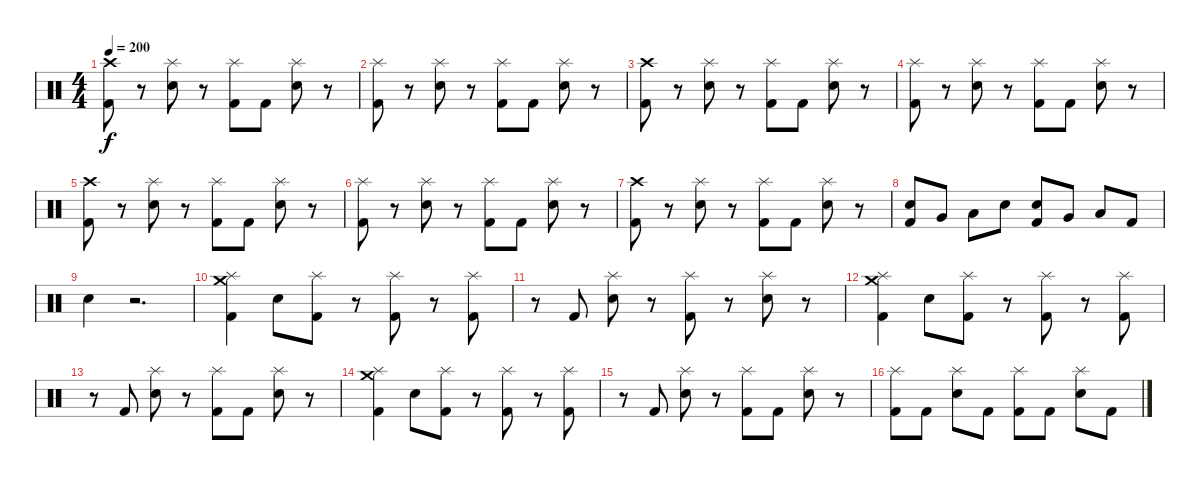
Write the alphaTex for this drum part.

\track "" {instrument percussion}
\staff {score}
\articulation defaults
\ts (4 4)
\tempo 200
\clef neutral
\ks c
("Crash high (hit)" "Kick (hit) 2").8{dy f} r.8 ("Splash (hit)" "Electric Snare (hit)").8 r.8 ("Splash (hit)" "Kick (hit) 2").8 "Kick (hit) 2".8 ("Splash (hit)" "Electric Snare (hit)").8 r.8 |
("Splash (hit)" "Kick (hit) 2").8 r.8 ("Splash (hit)" "Electric Snare (hit)").8 r.8 ("Splash (hit)" "Kick (hit) 2").8 "Kick (hit) 2".8 ("Splash (hit)" "Electric Snare (hit)").8 r.8 |
("Crash high (hit)" "Kick (hit) 2").8 r.8 ("Splash (hit)" "Electric Snare (hit)").8 r.8 ("Splash (hit)" "Kick (hit) 2").8 "Kick (hit) 2".8 ("Splash (hit)" "Electric Snare (hit)").8 r.8 |
("Splash (hit)" "Kick (hit) 2").8 r.8 ("Splash (hit)" "Electric Snare (hit)").8 r.8 ("Splash (hit)" "Kick (hit) 2").8 "Kick (hit) 2".8 ("Splash (hit)" "Electric Snare (hit)").8 r.8 |
("Crash high (hit)" "Kick (hit) 2").8 r.8 ("Splash (hit)" "Electric Snare (hit)").8 r.8 ("Splash (hit)" "Kick (hit) 2").8 "Kick (hit) 2".8 ("Splash (hit)" "Electric Snare (hit)").8 r.8 |
("Splash (hit)" "Kick (hit) 2").8 r.8 ("Splash (hit)" "Electric Snare (hit)").8 r.8 ("Splash (hit)" "Kick (hit) 2").8 "Kick (hit) 2".8 ("Splash (hit)" "Electric Snare (hit)").8 r.8 |
("Crash high (hit)" "Kick (hit) 2").8 r.8 ("Splash (hit)" "Electric Snare (hit)").8 r.8 ("Splash (hit)" "Kick (hit) 2").8 "Kick (hit) 2".8 ("Splash (hit)" "Electric Snare (hit)").8 r.8 |
("Kick (hit) 2" "Electric Snare (hit)").8 "Very Low Tom (hit)".8 "Low Tom (hit)".8 "Electric Snare (hit)".8 ("Kick (hit) 2" "Electric Snare (hit)").8 "Very Low Tom (hit)".8 "Low Tom (hit)".8 "Kick (hit) 2".8 |
"Electric Snare (hit)".4 r.2{d} |
("Splash (hit)" "Crash medium (hit)" "Kick (hit) 2").4 "Electric Snare (hit)".8 ("Splash (hit)" "Kick (hit) 2").8 r.8 ("Splash (hit)" "Kick (hit) 2").8 r.8 ("Splash (hit)" "Kick (hit) 2").8 |
r.8 "Kick (hit) 2".8 ("Splash (hit)" "Electric Snare (hit)").8 r.8 ("Splash (hit)" "Kick (hit) 2").8 r.8 ("Splash (hit)" "Electric Snare (hit)").8 r.8 |
("Splash (hit)" "Crash medium (hit)" "Kick (hit) 2").4 "Electric Snare (hit)".8 ("Splash (hit)" "Kick (hit) 2").8 r.8 ("Splash (hit)" "Kick (hit) 2").8 r.8 ("Splash (hit)" "Kick (hit) 2").8 |
r.8 "Kick (hit) 2".8 ("Splash (hit)" "Electric Snare (hit)").8 r.8 ("Splash (hit)" "Kick (hit) 2").8 "Kick (hit) 2".8 ("Splash (hit)" "Electric Snare (hit)").8 r.8 |
("Splash (hit)" "Crash medium (hit)" "Kick (hit) 2").4 "Electric Snare (hit)".8 ("Splash (hit)" "Kick (hit) 2").8 r.8 ("Splash (hit)" "Kick (hit) 2").8 r.8 ("Splash (hit)" "Kick (hit) 2").8 |
r.8 "Kick (hit) 2".8 ("Splash (hit)" "Electric Snare (hit)").8 r.8 ("Splash (hit)" "Kick (hit) 2").8 "Kick (hit) 2".8 ("Splash (hit)" "Electric Snare (hit)").8 r.8 |
("Splash (hit)" "Kick (hit) 2").8 "Kick (hit) 2".8 ("Splash (hit)" "Electric Snare (hit)").8 "Kick (hit) 2".8 ("Splash (hit)" "Kick (hit) 2").8 "Kick (hit) 2".8 ("Splash (hit)" "Electric Snare (hit)").8 "Kick (hit) 2".8
